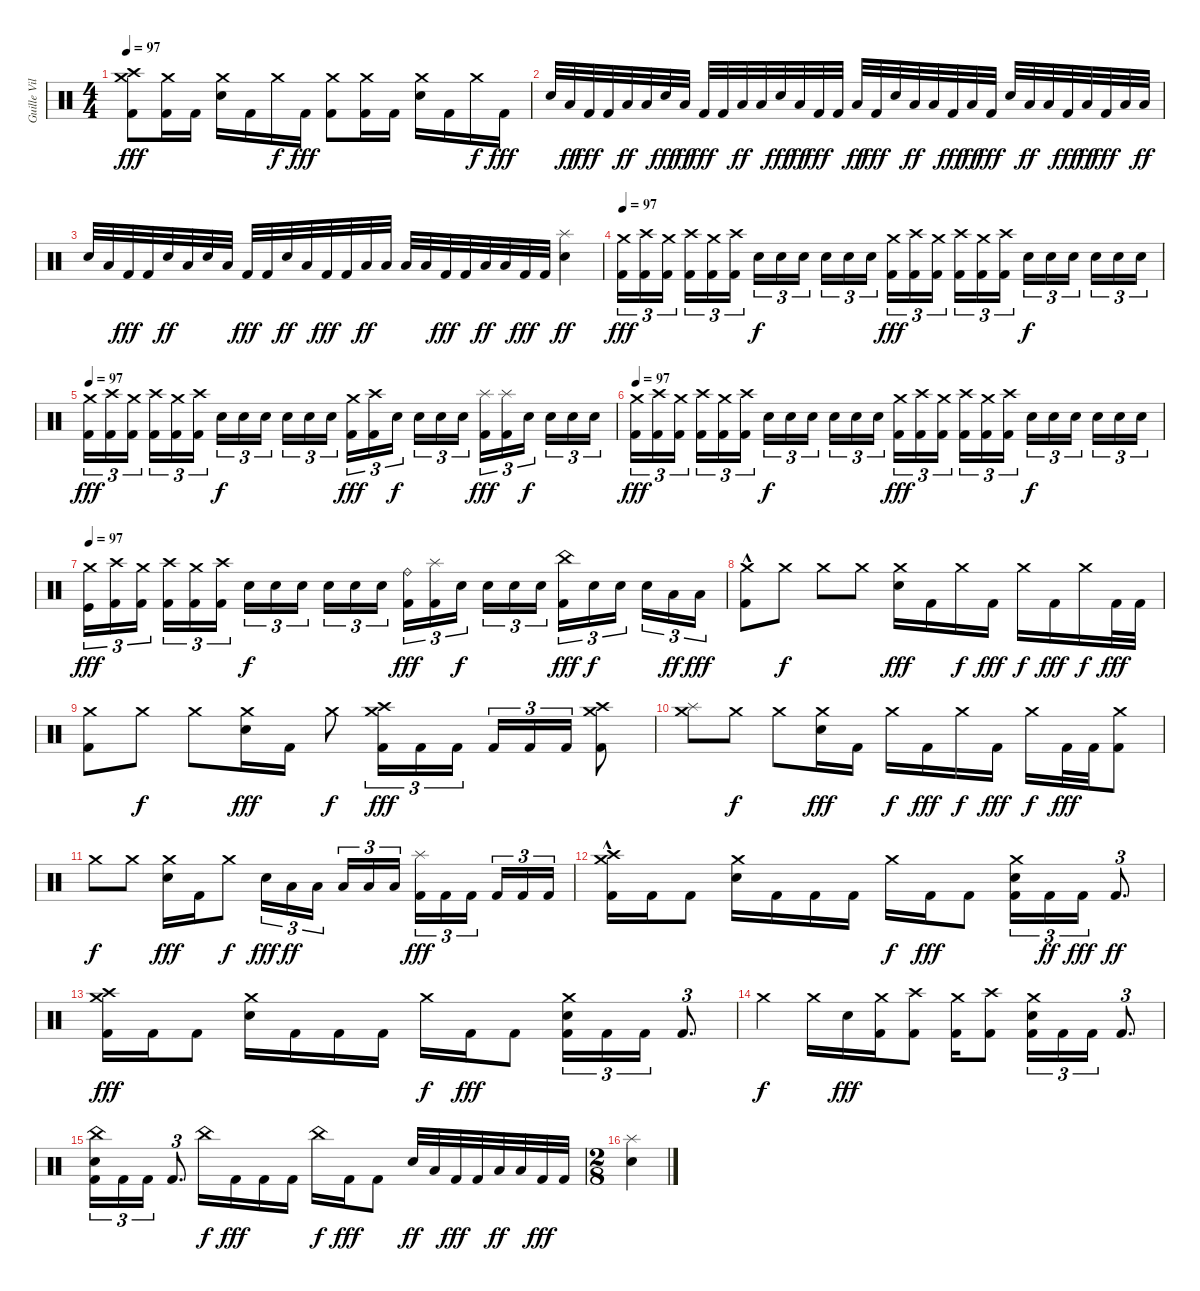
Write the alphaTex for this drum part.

\track ("Guille Vila" "Guille Vil") {instrument percussion}
\staff {score}
\articulation defaults
\ts (4 4)
\tempo 97
\clef neutral
\ks c
("Crash high (hit)" "Crash medium (hit)" "Kick (hit) 2").8{dy fff} ("Crash medium (hit)" "Kick (hit) 2").16 "Kick (hit) 2".16 ("Crash medium (hit)" "Snare (hit) 2").16 "Kick (hit) 2".16 "Crash medium (hit)".16{dy f} "Kick (hit) 2".16{dy fff} ("Crash medium (hit)" "Kick (hit) 2").8 ("Crash medium (hit)" "Kick (hit) 2").16 "Kick (hit) 2".16 ("Crash medium (hit)" "Snare (hit) 2").16 "Kick (hit) 2".16 "Crash medium (hit)".16{dy f} "Kick (hit) 2".16{dy fff} |
"Snare (hit) 2".32 "Low Tom (hit)".32{dy ff} "Kick (hit) 2".32{dy fff} "Kick (hit) 2".32 "Low Tom (hit)".32{dy ff} "Low Tom (hit)".32 "Snare (hit) 2".32{dy fff} "Low Tom (hit)".32{dy ff} "Kick (hit) 2".32{dy fff} "Kick (hit) 2".32 "Low Tom (hit)".32{dy ff} "Low Tom (hit)".32 "Snare (hit) 2".32{dy fff} "Low Tom (hit)".32{dy ff} "Kick (hit) 2".32{dy fff} "Kick (hit) 2".32 "Low Tom (hit)".32{dy ff} "Kick (hit) 2".32{dy fff} "Snare (hit) 2".32 "Low Tom (hit)".32{dy ff} "Low Tom (hit)".32 "Kick (hit) 2".32{dy fff} "Low Tom (hit)".32{dy ff} "Kick (hit) 2".32{dy fff} "Snare (hit) 2".32 "Low Tom (hit)".32{dy ff} "Low Tom (hit)".32 "Kick (hit) 2".32{dy fff} "Low Tom (hit)".32{dy ff} "Kick (hit) 2".32{dy fff} "Low Tom (hit)".32 "Low Tom (hit)".32{dy ff} |
"Snare (hit) 2".32 "Low Tom (hit)".32 "Kick (hit) 2".32{dy fff} "Kick (hit) 2".32 "Snare (hit) 2".32{dy ff} "Low Tom (hit)".32 "Snare (hit) 2".32 "Low Tom (hit)".32 "Kick (hit) 2".32{dy fff} "Kick (hit) 2".32 "Snare (hit) 2".32{dy ff} "Low Tom (hit)".32 "Kick (hit) 2".32{dy fff} "Kick (hit) 2".32 "Low Tom (hit)".32{dy ff} "Low Tom (hit)".32 "Low Tom (hit)".32 "Low Tom (hit)".32 "Kick (hit) 2".32{dy fff} "Kick (hit) 2".32 "Low Floor Tom (hit)".32{dy ff} "Low Floor Tom (hit)".32 "Kick (hit) 2".32{dy fff} "Kick (hit) 2".32 ("Splash (hit)" "Snare (hit) 2").4{dy ff} |
\tempo 97
("Crash medium (hit)" "Kick (hit) 2").16{tu (3 2) dy fff} ("Crash high (hit)" "Kick (hit) 2").16{tu (3 2)} ("Crash medium (hit)" "Kick (hit) 2").16{tu (3 2) beam splitsecondary} ("Crash high (hit)" "Kick (hit) 2").16{tu (3 2)} ("Crash medium (hit)" "Kick (hit) 2").16{tu (3 2)} ("Crash high (hit)" "Kick (hit) 2").16{tu (3 2)} "Snare (hit) 2".16{tu (3 2) dy f} "Snare (hit) 2".16{tu (3 2)} "Snare (hit) 2".16{tu (3 2) beam splitsecondary} "Snare (hit) 2".16{tu (3 2)} "Snare (hit) 2".16{tu (3 2)} "Snare (hit) 2".16{tu (3 2)} ("Crash medium (hit)" "Kick (hit) 2").16{tu (3 2) dy fff} ("Crash high (hit)" "Kick (hit) 2").16{tu (3 2)} ("Crash medium (hit)" "Kick (hit) 2").16{tu (3 2) beam splitsecondary} ("Crash high (hit)" "Kick (hit) 2").16{tu (3 2)} ("Crash medium (hit)" "Kick (hit) 2").16{tu (3 2)} ("Crash high (hit)" "Kick (hit) 2").16{tu (3 2)} "Snare (hit) 2".16{tu (3 2) dy f} "Snare (hit) 2".16{tu (3 2)} "Snare (hit) 2".16{tu (3 2) beam splitsecondary} "Snare (hit) 2".16{tu (3 2)} "Snare (hit) 2".16{tu (3 2)} "Snare (hit) 2".16{tu (3 2)} |
\tempo 97
("Crash medium (hit)" "Kick (hit) 2").16{tu (3 2) dy fff} ("Crash high (hit)" "Kick (hit) 2").16{tu (3 2)} ("Crash medium (hit)" "Kick (hit) 2").16{tu (3 2) beam splitsecondary} ("Crash high (hit)" "Kick (hit) 2").16{tu (3 2)} ("Crash medium (hit)" "Kick (hit) 2").16{tu (3 2)} ("Crash high (hit)" "Kick (hit) 2").16{tu (3 2)} "Snare (hit) 2".16{tu (3 2) dy f} "Snare (hit) 2".16{tu (3 2)} "Snare (hit) 2".16{tu (3 2) beam splitsecondary} "Snare (hit) 2".16{tu (3 2)} "Snare (hit) 2".16{tu (3 2)} "Snare (hit) 2".16{tu (3 2)} ("Crash medium (hit)" "Kick (hit) 2").16{tu (3 2) dy fff} ("Crash high (hit)" "Kick (hit) 2").16{tu (3 2)} "Snare (hit) 2".16{tu (3 2) dy f beam splitsecondary} "Snare (hit) 2".16{tu (3 2)} "Snare (hit) 2".16{tu (3 2)} "Snare (hit) 2".16{tu (3 2)} ("Splash (hit)" "Kick (hit) 2").16{tu (3 2) dy fff} ("Splash (hit)" "Kick (hit) 2").16{tu (3 2)} "Snare (hit) 2".16{tu (3 2) dy f beam splitsecondary} "Snare (hit) 2".16{tu (3 2)} "Snare (hit) 2".16{tu (3 2)} "Snare (hit) 2".16{tu (3 2)} |
\tempo 97
("Crash medium (hit)" "Kick (hit) 2").16{tu (3 2) dy fff} ("Crash high (hit)" "Kick (hit) 2").16{tu (3 2)} ("Crash medium (hit)" "Kick (hit) 2").16{tu (3 2) beam splitsecondary} ("Crash high (hit)" "Kick (hit) 2").16{tu (3 2)} ("Crash medium (hit)" "Kick (hit) 2").16{tu (3 2)} ("Crash high (hit)" "Kick (hit) 2").16{tu (3 2)} "Snare (hit) 2".16{tu (3 2) dy f} "Snare (hit) 2".16{tu (3 2)} "Snare (hit) 2".16{tu (3 2) beam splitsecondary} "Snare (hit) 2".16{tu (3 2)} "Snare (hit) 2".16{tu (3 2)} "Snare (hit) 2".16{tu (3 2)} ("Crash medium (hit)" "Kick (hit) 2").16{tu (3 2) dy fff} ("Crash high (hit)" "Kick (hit) 2").16{tu (3 2)} ("Crash medium (hit)" "Kick (hit) 2").16{tu (3 2) beam splitsecondary} ("Crash high (hit)" "Kick (hit) 2").16{tu (3 2)} ("Crash medium (hit)" "Kick (hit) 2").16{tu (3 2)} ("Crash high (hit)" "Kick (hit) 2").16{tu (3 2)} "Snare (hit) 2".16{tu (3 2) dy f} "Snare (hit) 2".16{tu (3 2)} "Snare (hit) 2".16{tu (3 2) beam splitsecondary} "Snare (hit) 2".16{tu (3 2)} "Snare (hit) 2".16{tu (3 2)} "Snare (hit) 2".16{tu (3 2)} |
\tempo 97
("Crash medium (hit)" "Kick (hit)").16{tu (3 2) dy fff} ("Crash high (hit)" "Kick (hit) 2").16{tu (3 2)} ("Crash medium (hit)" "Kick (hit) 2").16{tu (3 2) beam splitsecondary} ("Crash high (hit)" "Kick (hit) 2").16{tu (3 2)} ("Crash medium (hit)" "Kick (hit) 2").16{tu (3 2)} ("Crash high (hit)" "Kick (hit) 2").16{tu (3 2)} "Snare (hit) 2".16{tu (3 2) dy f} "Snare (hit) 2".16{tu (3 2)} "Snare (hit) 2".16{tu (3 2) beam splitsecondary} "Snare (hit) 2".16{tu (3 2)} "Snare (hit) 2".16{tu (3 2)} "Snare (hit) 2".16{tu (3 2)} ("Ride (bell)" "Kick (hit) 2").16{tu (3 2) dy fff} ("Splash (hit)" "Kick (hit) 2").16{tu (3 2)} "Snare (hit) 2".16{tu (3 2) dy f beam splitsecondary} "Snare (hit) 2".16{tu (3 2)} "Snare (hit) 2".16{tu (3 2)} "Snare (hit) 2".16{tu (3 2)} ("China (hit)" "Kick (hit) 2").16{tu (3 2) dy fff} "Snare (hit) 2".16{tu (3 2) dy f} "Snare (hit) 2".16{tu (3 2) beam splitsecondary} "Snare (hit) 2".16{tu (3 2)} "Low Tom (hit)".16{tu (3 2) dy ff} "Low Tom (hit)".16{tu (3 2) dy fff} |
("Crash medium (hit)" "Kick (hit) 2"{hac}).8 "Crash medium (hit)".8{dy f} "Crash medium (hit)".8 "Crash medium (hit)".8 ("Crash medium (hit)" "Snare (hit) 2").16{dy fff} "Kick (hit) 2".16 "Crash medium (hit)".16{dy f} "Kick (hit) 2".16{dy fff} "Crash medium (hit)".16{dy f} "Kick (hit) 2".16{dy fff} "Crash medium (hit)".16{dy f} "Kick (hit) 2".32{dy fff} "Kick (hit) 2".32 |
("Crash medium (hit)" "Kick (hit) 2").8 "Crash medium (hit)".8{dy f} "Crash medium (hit)".8 ("Crash medium (hit)" "Snare (hit) 2").16{dy fff} "Kick (hit) 2".16 "Crash medium (hit)".8{dy f} ("Crash medium (hit)" "Crash high (hit)" "Kick (hit) 2").16{tu (3 2) dy fff} "Kick (hit) 2".16{tu (3 2)} "Kick (hit) 2".16{tu (3 2)} "Kick (hit) 2".16{tu (3 2)} "Kick (hit) 2".16{tu (3 2)} "Kick (hit) 2".16{tu (3 2)} ("Crash medium (hit)" "Crash high (hit)" "Kick (hit) 2").8 |
("Crash medium (hit)" "Splash (hit)").8 "Crash medium (hit)".8{dy f} "Crash medium (hit)".8 ("Crash medium (hit)" "Snare (hit) 2").16{dy fff} "Kick (hit) 2".16 "Crash medium (hit)".16{dy f} "Kick (hit) 2".16{dy fff} "Crash medium (hit)".16{dy f} "Kick (hit) 2".16{dy fff} "Crash medium (hit)".16{dy f} "Kick (hit) 2".32{dy fff} "Kick (hit) 2".32 ("Crash medium (hit)" "Kick (hit) 2").8 |
"Crash medium (hit)".8{dy f} "Crash medium (hit)".8 ("Crash medium (hit)" "Snare (hit) 2").16{dy fff} "Kick (hit) 2".16 "Crash medium (hit)".8{dy f} "Snare (hit) 2".16{tu (3 2) dy fff} "Low Tom (hit)".16{tu (3 2) dy ff} "Low Tom (hit)".16{tu (3 2) beam splitsecondary} "Low Tom (hit)".16{tu (3 2)} "Low Tom (hit)".16{tu (3 2)} "Low Tom (hit)".16{tu (3 2)} ("Splash (hit)" "Kick (hit) 2").16{tu (3 2) dy fff} "Kick (hit) 2".16{tu (3 2)} "Kick (hit) 2".16{tu (3 2) beam splitsecondary} "Kick (hit) 2".16{tu (3 2)} "Kick (hit) 2".16{tu (3 2)} "Kick (hit) 2".16{tu (3 2)} |
("Crash high (hit)" "Crash medium (hit)" "Kick (hit) 2"{hac}).16 "Kick (hit) 2".16 "Kick (hit) 2".8 ("Crash medium (hit)" "Snare (hit) 2").16 "Kick (hit) 2".16 "Kick (hit) 2".16 "Kick (hit) 2".16 "Crash medium (hit)".16{dy f} "Kick (hit) 2".16{dy fff} "Kick (hit) 2".8 ("Crash medium (hit)" "Snare (hit) 2" "Kick (hit) 2").16{tu (3 2)} "Kick (hit) 2".16{tu (3 2) dy ff} "Kick (hit) 2".16{tu (3 2) dy fff} "Kick (hit) 2".8{d tu (3 2) dy ff} |
("Crash high (hit)" "Crash medium (hit)" "Kick (hit) 2").16{dy fff} "Kick (hit) 2".16 "Kick (hit) 2".8 ("Crash medium (hit)" "Snare (hit) 2").16 "Kick (hit) 2".16 "Kick (hit) 2".16 "Kick (hit) 2".16 "Crash medium (hit)".16{dy f} "Kick (hit) 2".16{dy fff} "Kick (hit) 2".8 ("Crash medium (hit)" "Snare (hit) 2" "Kick (hit) 2").16{tu (3 2)} "Kick (hit) 2".16{tu (3 2)} "Kick (hit) 2".16{tu (3 2)} "Kick (hit) 2".8{d tu (3 2)} |
"Crash medium (hit)".4{dy f} "Crash medium (hit)".16 "Snare (hit) 2".16{dy fff} ("Crash medium (hit)" "Kick (hit) 2").16 ("Crash high (hit)" "Kick (hit) 2").8 ("Crash medium (hit)" "Kick (hit) 2").16 ("Crash high (hit)" "Kick (hit) 2").8 ("Crash medium (hit)" "Snare (hit) 2" "Kick (hit) 2").16{tu (3 2)} "Kick (hit) 2".16{tu (3 2)} "Kick (hit) 2".16{tu (3 2)} "Kick (hit) 2".8{d tu (3 2)} |
("China (hit)" "Snare (hit) 2" "Kick (hit) 2").16{tu (3 2)} "Kick (hit) 2".16{tu (3 2)} "Kick (hit) 2".16{tu (3 2)} "Kick (hit) 2".8{d tu (3 2)} "China (hit)".16{dy f} "Kick (hit) 2".16{dy fff} "Kick (hit) 2".16 "Kick (hit) 2".16 "China (hit)".16{dy f} "Kick (hit) 2".16{dy fff} "Kick (hit) 2".8 "Snare (hit) 2".32{dy ff} "Low Tom (hit)".32 "Kick (hit) 2".32{dy fff} "Kick (hit) 2".32 "Low Floor Tom (hit)".32{dy ff} "Low Tom (hit)".32 "Kick (hit) 2".32{dy fff} "Kick (hit) 2".32 |
\ts (2 8)
("Splash (hit)" "Snare (hit) 2").4
